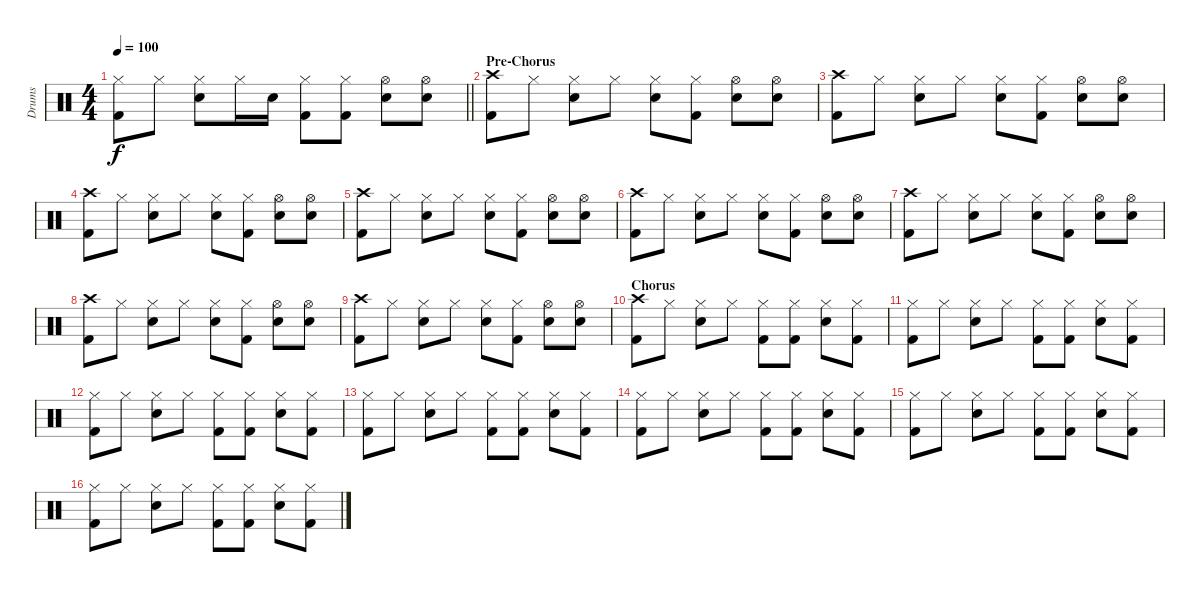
\track ("Drums" "Drums") {instrument percussion}
\staff {score}
\articulation defaults
\ts (4 4)
\tempo 100
\clef neutral
\barLineRight lightlight
\ks c
("Hi-Hat (closed)" "Kick (hit) 2").8{dy f} "Hi-Hat (closed)".8 ("Hi-Hat (closed)" "Electric Snare (hit)").8 "Hi-Hat (closed)".16 "Electric Snare (hit)".16 ("Hi-Hat (closed)" "Kick (hit) 2").8 ("Hi-Hat (closed)" "Kick (hit) 2").8 ("Hi-Hat (open)" "Electric Snare (hit)").8 ("Hi-Hat (open)" "Electric Snare (hit)").8 |
\section ("" "Pre-Chorus")
("Crash high (hit)" "Kick (hit) 2").8 "Hi-Hat (closed)".8 ("Hi-Hat (closed)" "Electric Snare (hit)").8 "Hi-Hat (closed)".8 ("Hi-Hat (closed)" "Electric Snare (hit)").8 ("Hi-Hat (closed)" "Kick (hit) 2").8 ("Hi-Hat (open)" "Electric Snare (hit)").8 ("Hi-Hat (open)" "Electric Snare (hit)").8 |
("Crash high (hit)" "Kick (hit) 2").8 "Hi-Hat (closed)".8 ("Hi-Hat (closed)" "Electric Snare (hit)").8 "Hi-Hat (closed)".8 ("Hi-Hat (closed)" "Electric Snare (hit)").8 ("Hi-Hat (closed)" "Kick (hit) 2").8 ("Hi-Hat (open)" "Electric Snare (hit)").8 ("Hi-Hat (open)" "Electric Snare (hit)").8 |
("Crash high (hit)" "Kick (hit) 2").8 "Hi-Hat (closed)".8 ("Hi-Hat (closed)" "Electric Snare (hit)").8 "Hi-Hat (closed)".8 ("Hi-Hat (closed)" "Electric Snare (hit)").8 ("Hi-Hat (closed)" "Kick (hit) 2").8 ("Hi-Hat (open)" "Electric Snare (hit)").8 ("Hi-Hat (open)" "Electric Snare (hit)").8 |
("Crash high (hit)" "Kick (hit) 2").8 "Hi-Hat (closed)".8 ("Hi-Hat (closed)" "Electric Snare (hit)").8 "Hi-Hat (closed)".8 ("Hi-Hat (closed)" "Electric Snare (hit)").8 ("Hi-Hat (closed)" "Kick (hit) 2").8 ("Hi-Hat (open)" "Electric Snare (hit)").8 ("Hi-Hat (open)" "Electric Snare (hit)").8 |
("Crash high (hit)" "Kick (hit) 2").8 "Hi-Hat (closed)".8 ("Hi-Hat (closed)" "Electric Snare (hit)").8 "Hi-Hat (closed)".8 ("Hi-Hat (closed)" "Electric Snare (hit)").8 ("Hi-Hat (closed)" "Kick (hit) 2").8 ("Hi-Hat (open)" "Electric Snare (hit)").8 ("Hi-Hat (open)" "Electric Snare (hit)").8 |
("Crash high (hit)" "Kick (hit) 2").8 "Hi-Hat (closed)".8 ("Hi-Hat (closed)" "Electric Snare (hit)").8 "Hi-Hat (closed)".8 ("Hi-Hat (closed)" "Electric Snare (hit)").8 ("Hi-Hat (closed)" "Kick (hit) 2").8 ("Hi-Hat (open)" "Electric Snare (hit)").8 ("Hi-Hat (open)" "Electric Snare (hit)").8 |
("Crash high (hit)" "Kick (hit) 2").8 "Hi-Hat (closed)".8 ("Hi-Hat (closed)" "Electric Snare (hit)").8 "Hi-Hat (closed)".8 ("Hi-Hat (closed)" "Electric Snare (hit)").8 ("Hi-Hat (closed)" "Kick (hit) 2").8 ("Hi-Hat (open)" "Electric Snare (hit)").8 ("Hi-Hat (open)" "Electric Snare (hit)").8 |
("Crash high (hit)" "Kick (hit) 2").8 "Hi-Hat (closed)".8 ("Hi-Hat (closed)" "Electric Snare (hit)").8 "Hi-Hat (closed)".8 ("Hi-Hat (closed)" "Electric Snare (hit)").8 ("Hi-Hat (closed)" "Kick (hit) 2").8 ("Hi-Hat (open)" "Electric Snare (hit)").8 ("Hi-Hat (open)" "Electric Snare (hit)").8 |
\section ("" "Chorus")
("Crash high (hit)" "Kick (hit) 2").8 "Hi-Hat (closed)".8 ("Hi-Hat (closed)" "Electric Snare (hit)").8 "Hi-Hat (closed)".8 ("Hi-Hat (closed)" "Kick (hit) 2").8 ("Hi-Hat (closed)" "Kick (hit) 2").8 ("Hi-Hat (closed)" "Electric Snare (hit)").8 ("Hi-Hat (closed)" "Kick (hit) 2").8 |
("Hi-Hat (closed)" "Kick (hit) 2").8 "Hi-Hat (closed)".8 ("Hi-Hat (closed)" "Electric Snare (hit)").8 "Hi-Hat (closed)".8 ("Hi-Hat (closed)" "Kick (hit) 2").8 ("Hi-Hat (closed)" "Kick (hit) 2").8 ("Hi-Hat (closed)" "Electric Snare (hit)").8 ("Hi-Hat (closed)" "Kick (hit) 2").8 |
("Hi-Hat (closed)" "Kick (hit) 2").8 "Hi-Hat (closed)".8 ("Hi-Hat (closed)" "Electric Snare (hit)").8 "Hi-Hat (closed)".8 ("Hi-Hat (closed)" "Kick (hit) 2").8 ("Hi-Hat (closed)" "Kick (hit) 2").8 ("Hi-Hat (closed)" "Electric Snare (hit)").8 ("Hi-Hat (closed)" "Kick (hit) 2").8 |
("Hi-Hat (closed)" "Kick (hit) 2").8 "Hi-Hat (closed)".8 ("Hi-Hat (closed)" "Electric Snare (hit)").8 "Hi-Hat (closed)".8 ("Hi-Hat (closed)" "Kick (hit) 2").8 ("Hi-Hat (closed)" "Kick (hit) 2").8 ("Hi-Hat (closed)" "Electric Snare (hit)").8 ("Hi-Hat (closed)" "Kick (hit) 2").8 |
("Hi-Hat (closed)" "Kick (hit) 2").8 "Hi-Hat (closed)".8 ("Hi-Hat (closed)" "Electric Snare (hit)").8 "Hi-Hat (closed)".8 ("Hi-Hat (closed)" "Kick (hit) 2").8 ("Hi-Hat (closed)" "Kick (hit) 2").8 ("Hi-Hat (closed)" "Electric Snare (hit)").8 ("Hi-Hat (closed)" "Kick (hit) 2").8 |
("Hi-Hat (closed)" "Kick (hit) 2").8 "Hi-Hat (closed)".8 ("Hi-Hat (closed)" "Electric Snare (hit)").8 "Hi-Hat (closed)".8 ("Hi-Hat (closed)" "Kick (hit) 2").8 ("Hi-Hat (closed)" "Kick (hit) 2").8 ("Hi-Hat (closed)" "Electric Snare (hit)").8 ("Hi-Hat (closed)" "Kick (hit) 2").8 |
("Hi-Hat (closed)" "Kick (hit) 2").8 "Hi-Hat (closed)".8 ("Hi-Hat (closed)" "Electric Snare (hit)").8 "Hi-Hat (closed)".8 ("Hi-Hat (closed)" "Kick (hit) 2").8 ("Hi-Hat (closed)" "Kick (hit) 2").8 ("Hi-Hat (closed)" "Electric Snare (hit)").8 ("Hi-Hat (closed)" "Kick (hit) 2").8
